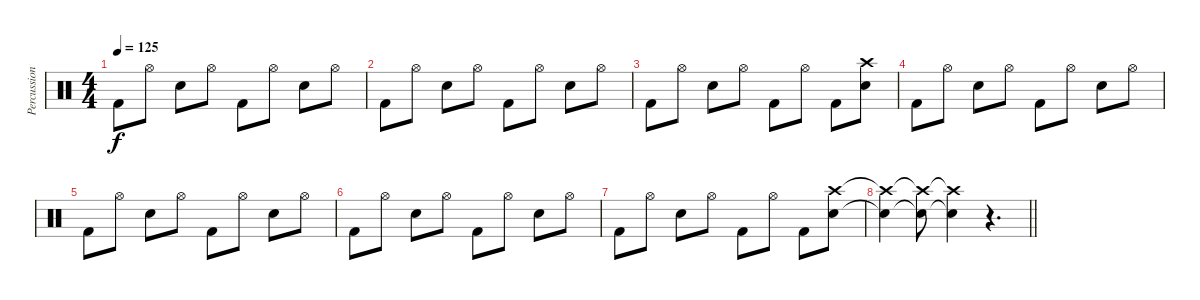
\track ("Percussion" "Percussion") {instrument percussion}
\staff {score}
\articulation defaults
\ts (4 4)
\tempo 125
\clef neutral
\ks c "Kick (hit) 2".8{dy f} "Hi-Hat (open)".8 "Snare (hit) 2".8 "Hi-Hat (open)".8 "Kick (hit) 2".8 "Hi-Hat (open)".8 "Snare (hit) 2".8 "Hi-Hat (open)".8
|
"Kick (hit) 2".8 "Hi-Hat (open)".8 "Snare (hit) 2".8 "Hi-Hat (open)".8 "Kick (hit) 2".8 "Hi-Hat (open)".8 "Snare (hit) 2".8 "Hi-Hat (open)".8 |
"Kick (hit) 2".8 "Hi-Hat (open)".8 "Snare (hit) 2".8 "Hi-Hat (open)".8 "Kick (hit) 2".8 "Hi-Hat (open)".8 "Kick (hit) 2".8 ("Crash high (hit)" "Snare (hit) 2").8 |
"Kick (hit) 2".8 "Hi-Hat (open)".8 "Snare (hit) 2".8 "Hi-Hat (open)".8 "Kick (hit) 2".8 "Hi-Hat (open)".8 "Snare (hit) 2".8 "Hi-Hat (open)".8 |
"Kick (hit) 2".8 "Hi-Hat (open)".8 "Snare (hit) 2".8 "Hi-Hat (open)".8 "Kick (hit) 2".8 "Hi-Hat (open)".8 "Snare (hit) 2".8 "Hi-Hat (open)".8 |
"Kick (hit) 2".8 "Hi-Hat (open)".8 "Snare (hit) 2".8 "Hi-Hat (open)".8 "Kick (hit) 2".8 "Hi-Hat (open)".8 "Snare (hit) 2".8 "Hi-Hat (open)".8 |
"Kick (hit) 2".8 "Hi-Hat (open)".8 "Snare (hit) 2".8 "Hi-Hat (open)".8 "Kick (hit) 2".8 "Hi-Hat (open)".8 "Kick (hit) 2".8 ("Crash high (hit)" "Snare (hit) 2").8 |
\barLineRight lightlight
("Crash high (hit)"{t} "Snare (hit) 2"{t}).4 ("Crash high (hit)"{t} "Snare (hit) 2"{t}).8 ("Crash high (hit)"{t} "Snare (hit) 2"{t}).4 r.4{d}
